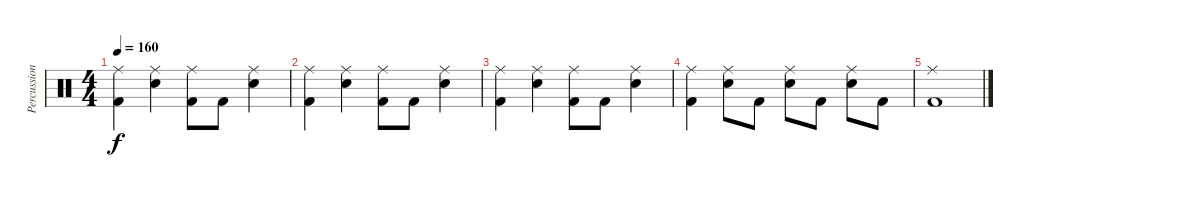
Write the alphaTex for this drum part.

\track ("Percussion" "Percussion") {instrument percussion}
\staff {score}
\articulation defaults
\ts (4 4)
\tempo 160
\clef neutral
\ks c
("Ride (middle)" "Kick (hit) 2").4{dy f} ("Ride (middle)" "Electric Snare (hit)").4 ("Ride (middle)" "Kick (hit) 2").8 "Kick (hit) 2".8 ("Ride (middle)" "Electric Snare (hit)").4 |
("Ride (middle)" "Kick (hit) 2").4 ("Ride (middle)" "Electric Snare (hit)").4 ("Ride (middle)" "Kick (hit) 2").8 "Kick (hit) 2".8 ("Ride (middle)" "Electric Snare (hit)").4 |
("Ride (middle)" "Kick (hit) 2").4 ("Ride (middle)" "Electric Snare (hit)").4 ("Ride (middle)" "Kick (hit) 2").8 "Kick (hit) 2".8 ("Ride (middle)" "Electric Snare (hit)").4 |
("Ride (middle)" "Kick (hit) 2").4 ("Ride (middle)" "Electric Snare (hit)").8 "Kick (hit) 2".8 ("Ride (middle)" "Electric Snare (hit)").8 "Kick (hit) 2".8 ("Ride (middle)" "Electric Snare (hit)").8 "Kick (hit) 2".8 |
("Ride (middle)" "Kick (hit) 2").1
